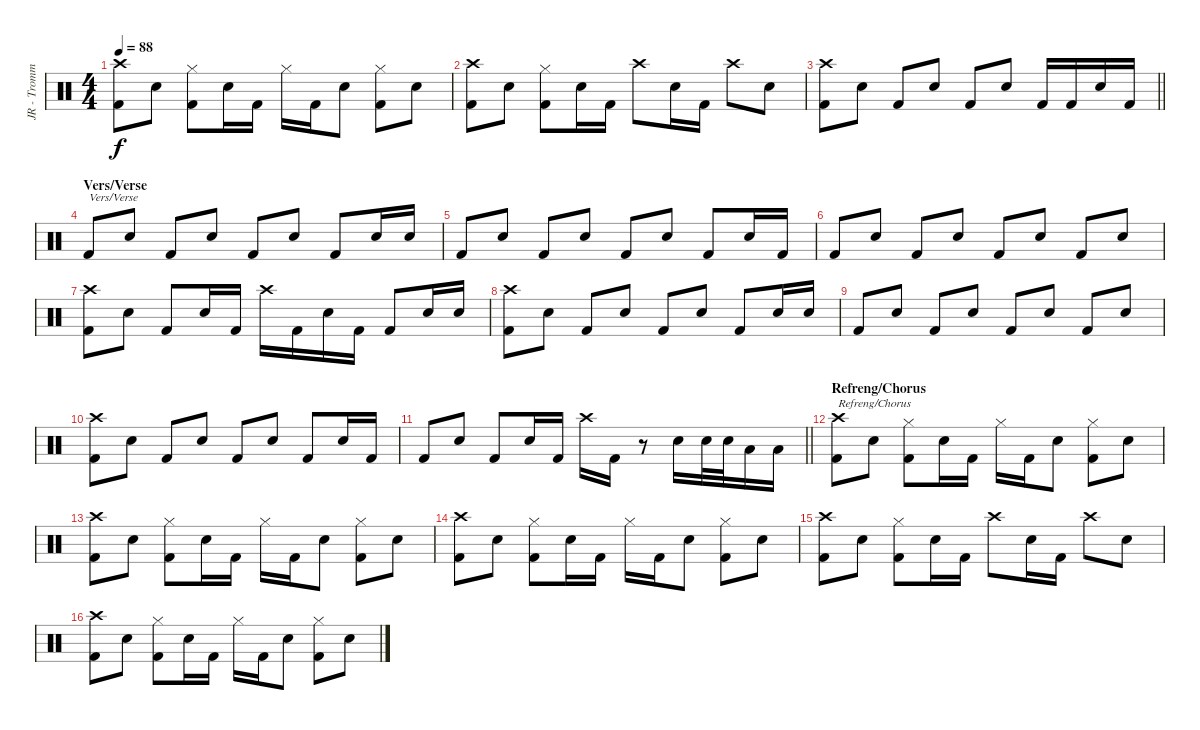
\track ("JR - Trommesett" "JR - Tromm") {instrument percussion}
\staff {score}
\articulation defaults
\ts (4 4)
\tempo 88
\clef neutral
\ks c
("Crash high (hit)" "Kick (hit) 2").8{dy f} "Electric Snare (hit)".8 ("Hi-Hat (closed)" "Kick (hit) 2").8 "Electric Snare (hit)".16 "Kick (hit) 2".16 "Hi-Hat (closed)".16 "Kick (hit) 2".16 "Electric Snare (hit)".8 ("Hi-Hat (closed)" "Kick (hit) 2").8 "Electric Snare (hit)".8 |
("Crash high (hit)" "Kick (hit) 2").8 "Electric Snare (hit)".8 ("Hi-Hat (closed)" "Kick (hit) 2").8 "Electric Snare (hit)".16 "Kick (hit) 2".16 "Crash high (hit)".8 "Electric Snare (hit)".16 "Kick (hit) 2".16 "Crash high (hit)".8 "Electric Snare (hit)".8 |
\barLineRight lightlight
("Crash high (hit)" "Kick (hit) 2").8 "Electric Snare (hit)".8 "Kick (hit) 2".8 "Electric Snare (hit)".8 "Kick (hit) 2".8 "Electric Snare (hit)".8 "Kick (hit) 2".16 "Kick (hit) 2".16 "Electric Snare (hit)".16 "Kick (hit) 2".16 |
\section ("" "Vers/Verse")
"Kick (hit) 2".8{txt "Vers/Verse"} "Electric Snare (hit)".8 "Kick (hit) 2".8 "Electric Snare (hit)".8 "Kick (hit) 2".8 "Electric Snare (hit)".8 "Kick (hit) 2".8 "Electric Snare (hit)".16 "Electric Snare (hit)".16 |
"Kick (hit) 2".8 "Electric Snare (hit)".8 "Kick (hit) 2".8 "Electric Snare (hit)".8 "Kick (hit) 2".8 "Electric Snare (hit)".8 "Kick (hit) 2".8 "Electric Snare (hit)".16 "Kick (hit) 2".16 |
"Kick (hit) 2".8 "Electric Snare (hit)".8 "Kick (hit) 2".8 "Electric Snare (hit)".8 "Kick (hit) 2".8 "Electric Snare (hit)".8 "Kick (hit) 2".8 "Electric Snare (hit)".8 |
("Crash high (hit)" "Kick (hit) 2").8 "Electric Snare (hit)".8 "Kick (hit) 2".8 "Electric Snare (hit)".16 "Kick (hit) 2".16 "Crash high (hit)".16 "Kick (hit) 2".16 "Electric Snare (hit)".16 "Kick (hit) 2".16 "Kick (hit) 2".8 "Electric Snare (hit)".16 "Electric Snare (hit)".16 |
("Crash high (hit)" "Kick (hit) 2").8 "Electric Snare (hit)".8 "Kick (hit) 2".8 "Electric Snare (hit)".8 "Kick (hit) 2".8 "Electric Snare (hit)".8 "Kick (hit) 2".8 "Electric Snare (hit)".16 "Electric Snare (hit)".16 |
"Kick (hit) 2".8 "Electric Snare (hit)".8 "Kick (hit) 2".8 "Electric Snare (hit)".8 "Kick (hit) 2".8 "Electric Snare (hit)".8 "Kick (hit) 2".8 "Electric Snare (hit)".8 |
("Crash high (hit)" "Kick (hit) 2").8 "Electric Snare (hit)".8 "Kick (hit) 2".8 "Electric Snare (hit)".8 "Kick (hit) 2".8 "Electric Snare (hit)".8 "Kick (hit) 2".8 "Electric Snare (hit)".16 "Kick (hit) 2".16 |
\barLineRight lightlight "Kick (hit) 2".8 "Electric Snare (hit)".8 "Kick (hit) 2".8 "Electric Snare (hit)".16 "Kick (hit) 2".16 "Crash high (hit)".16 "Kick (hit) 2".16
r.8 "Electric Snare (hit)".16 "Electric Snare (hit)".32 "Electric Snare (hit)".32 "Low Tom (hit)".16 "Low Tom (hit)".16 |
\section ("" "Refreng/Chorus")
("Crash high (hit)" "Kick (hit) 2").8{txt "Refreng/Chorus"} "Electric Snare (hit)".8 ("Hi-Hat (closed)" "Kick (hit) 2").8 "Electric Snare (hit)".16 "Kick (hit) 2".16 "Hi-Hat (closed)".16 "Kick (hit) 2".16 "Electric Snare (hit)".8 ("Hi-Hat (closed)" "Kick (hit) 2").8 "Electric Snare (hit)".8 |
("Crash high (hit)" "Kick (hit) 2").8 "Electric Snare (hit)".8 ("Hi-Hat (closed)" "Kick (hit) 2").8 "Electric Snare (hit)".16 "Kick (hit) 2".16 "Hi-Hat (closed)".16 "Kick (hit) 2".16 "Electric Snare (hit)".8 ("Hi-Hat (closed)" "Kick (hit) 2").8 "Electric Snare (hit)".8 |
("Crash high (hit)" "Kick (hit) 2").8 "Electric Snare (hit)".8 ("Hi-Hat (closed)" "Kick (hit) 2").8 "Electric Snare (hit)".16 "Kick (hit) 2".16 "Hi-Hat (closed)".16 "Kick (hit) 2".16 "Electric Snare (hit)".8 ("Hi-Hat (closed)" "Kick (hit) 2").8 "Electric Snare (hit)".8 |
("Crash high (hit)" "Kick (hit) 2").8 "Electric Snare (hit)".8 ("Hi-Hat (closed)" "Kick (hit) 2").8 "Electric Snare (hit)".16 "Kick (hit) 2".16 "Crash high (hit)".8 "Electric Snare (hit)".16 "Kick (hit) 2".16 "Crash high (hit)".8 "Electric Snare (hit)".8 |
("Crash high (hit)" "Kick (hit) 2").8 "Electric Snare (hit)".8 ("Hi-Hat (closed)" "Kick (hit) 2").8 "Electric Snare (hit)".16 "Kick (hit) 2".16 "Hi-Hat (closed)".16 "Kick (hit) 2".16 "Electric Snare (hit)".8 ("Hi-Hat (closed)" "Kick (hit) 2").8 "Electric Snare (hit)".8
